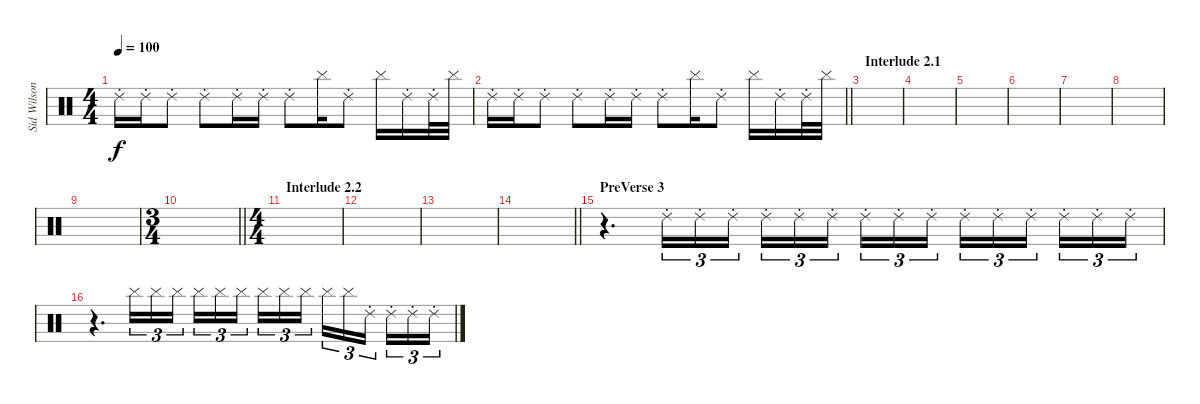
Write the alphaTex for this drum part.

\track ("Sid Wilson" "Sid Wilson") {instrument percussion}
\staff {score}
\articulation defaults
\ts (4 4)
\tempo 100
\clef neutral
\ks c "Ride (choke) 2".16{dy f} "Ride (choke) 2".16 "Ride (choke) 2".8 "Ride (choke) 2".8 "Ride (choke) 2".16 "Ride (choke) 2".16 "Ride (choke) 2".8 "Cymbal (hit)".16 "Ride (choke) 2".8 "Cymbal (hit)".16 "Ride (choke) 2".16 "Ride (choke) 2".32 "Cymbal (hit)".32
|
\barLineRight lightlight "Ride (choke) 2".16 "Ride (choke) 2".16 "Ride (choke) 2".8 "Ride (choke) 2".8 "Ride (choke) 2".16 "Ride (choke) 2".16 "Ride (choke) 2".8 "Cymbal (hit)".16 "Ride (choke) 2".8 "Cymbal (hit)".16 "Ride (choke) 2".16 "Ride (choke) 2".32 "Cymbal (hit)".32
|
\section ("" "Interlude 2.1")
|
|
|
|
|
|
|
\ts (3 4)
\barLineRight lightlight
|
\ts (4 4)
\section ("" "Interlude 2.2")
|
|
|
\barLineRight lightlight
|
\section ("" "PreVerse 3")
r.4{d} "Ride (choke) 2".16{tu (3 2)} "Ride (choke) 2".16{tu (3 2)} "Ride (choke) 2".16{tu (3 2)} "Ride (choke) 2".16{tu (3 2)} "Ride (choke) 2".16{tu (3 2)} "Ride (choke) 2".16{tu (3 2) beam splitsecondary} "Ride (choke) 2".16{tu (3 2)} "Ride (choke) 2".16{tu (3 2)} "Ride (choke) 2".16{tu (3 2)} "Ride (choke) 2".16{tu (3 2)} "Ride (choke) 2".16{tu (3 2)} "Ride (choke) 2".16{tu (3 2) beam splitsecondary} "Ride (choke) 2".16{tu (3 2)} "Ride (choke) 2".16{tu (3 2)} "Ride (choke) 2".16{tu (3 2)} |
r.4{d} "Cymbal (hit)".16{tu (3 2)} "Cymbal (hit)".16{tu (3 2)} "Cymbal (hit)".16{tu (3 2)} "Cymbal (hit)".16{tu (3 2)} "Cymbal (hit)".16{tu (3 2)} "Cymbal (hit)".16{tu (3 2) beam splitsecondary} "Cymbal (hit)".16{tu (3 2)} "Cymbal (hit)".16{tu (3 2)} "Cymbal (hit)".16{tu (3 2)} "Cymbal (hit)".16{tu (3 2)} "Cymbal (hit)".16{tu (3 2)} "Ride (choke) 2".16{tu (3 2) beam splitsecondary} "Ride (choke) 2".16{tu (3 2)} "Ride (choke) 2".16{tu (3 2)} "Ride (choke) 2".16{tu (3 2)}
